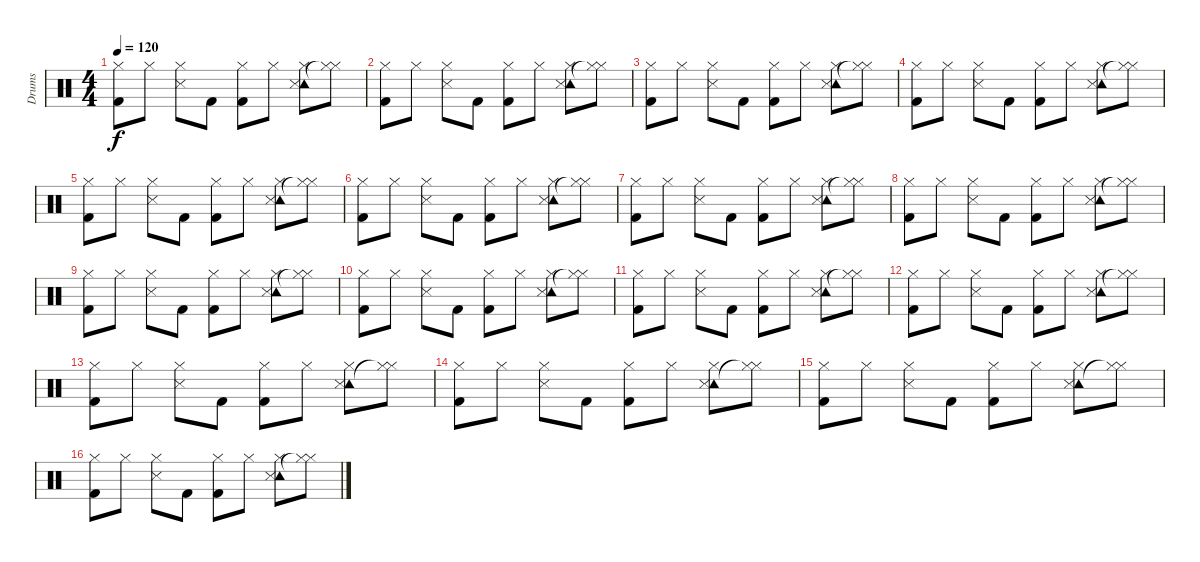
\track ("Drums" "Drums") {instrument percussion}
\staff {score}
\articulation defaults
\ts (4 4)
\tempo 120
\clef neutral
\ks c
("Hi-Hat (closed)" "Kick (hit) 2").8{dy f} "Hi-Hat (closed)".8 ("Hi-Hat (closed)" "Snare (side stick) 3").8 "Kick (hit) 2".8 ("Hi-Hat (closed)" "Kick (hit) 2").8 "Hi-Hat (closed)".8 ("Tambourine (hit)" "Hi-Hat (closed)" "Snare (side stick) 3").8 ("Hi-Hat (closed)"{t} "Hi-Hat (closed)").8 |
("Hi-Hat (closed)" "Kick (hit) 2").8 "Hi-Hat (closed)".8 ("Hi-Hat (closed)" "Snare (side stick) 3").8 "Kick (hit) 2".8 ("Hi-Hat (closed)" "Kick (hit) 2").8 "Hi-Hat (closed)".8 ("Tambourine (hit)" "Hi-Hat (closed)" "Snare (side stick) 3").8 ("Hi-Hat (closed)"{t} "Hi-Hat (closed)").8 |
("Hi-Hat (closed)" "Kick (hit) 2").8 "Hi-Hat (closed)".8 ("Hi-Hat (closed)" "Snare (side stick) 3").8 "Kick (hit) 2".8 ("Hi-Hat (closed)" "Kick (hit) 2").8 "Hi-Hat (closed)".8 ("Tambourine (hit)" "Hi-Hat (closed)" "Snare (side stick) 3").8 ("Hi-Hat (closed)"{t} "Hi-Hat (closed)").8 |
("Hi-Hat (closed)" "Kick (hit) 2").8 "Hi-Hat (closed)".8 ("Hi-Hat (closed)" "Snare (side stick) 3").8 "Kick (hit) 2".8 ("Hi-Hat (closed)" "Kick (hit) 2").8 "Hi-Hat (closed)".8 ("Tambourine (hit)" "Hi-Hat (closed)" "Snare (side stick) 3").8 ("Hi-Hat (closed)"{t} "Hi-Hat (closed)").8 |
("Hi-Hat (closed)" "Kick (hit) 2").8 "Hi-Hat (closed)".8 ("Hi-Hat (closed)" "Snare (side stick) 3").8 "Kick (hit) 2".8 ("Hi-Hat (closed)" "Kick (hit) 2").8 "Hi-Hat (closed)".8 ("Tambourine (hit)" "Hi-Hat (closed)" "Snare (side stick) 3").8 ("Hi-Hat (closed)"{t} "Hi-Hat (closed)").8 |
("Hi-Hat (closed)" "Kick (hit) 2").8 "Hi-Hat (closed)".8 ("Hi-Hat (closed)" "Snare (side stick) 3").8 "Kick (hit) 2".8 ("Hi-Hat (closed)" "Kick (hit) 2").8 "Hi-Hat (closed)".8 ("Tambourine (hit)" "Hi-Hat (closed)" "Snare (side stick) 3").8 ("Hi-Hat (closed)"{t} "Hi-Hat (closed)").8 |
("Hi-Hat (closed)" "Kick (hit) 2").8 "Hi-Hat (closed)".8 ("Hi-Hat (closed)" "Snare (side stick) 3").8 "Kick (hit) 2".8 ("Hi-Hat (closed)" "Kick (hit) 2").8 "Hi-Hat (closed)".8 ("Tambourine (hit)" "Hi-Hat (closed)" "Snare (side stick) 3").8 ("Hi-Hat (closed)"{t} "Hi-Hat (closed)").8 |
("Hi-Hat (closed)" "Kick (hit) 2").8 "Hi-Hat (closed)".8 ("Hi-Hat (closed)" "Snare (side stick) 3").8 "Kick (hit) 2".8 ("Hi-Hat (closed)" "Kick (hit) 2").8 "Hi-Hat (closed)".8 ("Tambourine (hit)" "Hi-Hat (closed)" "Snare (side stick) 3").8 ("Hi-Hat (closed)"{t} "Hi-Hat (closed)").8 |
("Hi-Hat (closed)" "Kick (hit) 2").8 "Hi-Hat (closed)".8 ("Hi-Hat (closed)" "Snare (side stick) 3").8 "Kick (hit) 2".8 ("Hi-Hat (closed)" "Kick (hit) 2").8 "Hi-Hat (closed)".8 ("Tambourine (hit)" "Hi-Hat (closed)" "Snare (side stick) 3").8 ("Hi-Hat (closed)"{t} "Hi-Hat (closed)").8 |
("Hi-Hat (closed)" "Kick (hit) 2").8 "Hi-Hat (closed)".8 ("Hi-Hat (closed)" "Snare (side stick) 3").8 "Kick (hit) 2".8 ("Hi-Hat (closed)" "Kick (hit) 2").8 "Hi-Hat (closed)".8 ("Tambourine (hit)" "Hi-Hat (closed)" "Snare (side stick) 3").8 ("Hi-Hat (closed)"{t} "Hi-Hat (closed)").8 |
("Hi-Hat (closed)" "Kick (hit) 2").8 "Hi-Hat (closed)".8 ("Hi-Hat (closed)" "Snare (side stick) 3").8 "Kick (hit) 2".8 ("Hi-Hat (closed)" "Kick (hit) 2").8 "Hi-Hat (closed)".8 ("Tambourine (hit)" "Hi-Hat (closed)" "Snare (side stick) 3").8 ("Hi-Hat (closed)"{t} "Hi-Hat (closed)").8 |
("Hi-Hat (closed)" "Kick (hit) 2").8 "Hi-Hat (closed)".8 ("Hi-Hat (closed)" "Snare (side stick) 3").8 "Kick (hit) 2".8 ("Hi-Hat (closed)" "Kick (hit) 2").8 "Hi-Hat (closed)".8 ("Tambourine (hit)" "Hi-Hat (closed)" "Snare (side stick) 3").8 ("Hi-Hat (closed)"{t} "Hi-Hat (closed)").8 |
("Hi-Hat (closed)" "Kick (hit) 2").8 "Hi-Hat (closed)".8 ("Hi-Hat (closed)" "Snare (side stick) 3").8 "Kick (hit) 2".8 ("Hi-Hat (closed)" "Kick (hit) 2").8 "Hi-Hat (closed)".8 ("Tambourine (hit)" "Hi-Hat (closed)" "Snare (side stick) 3").8 ("Hi-Hat (closed)"{t} "Hi-Hat (closed)").8 |
("Hi-Hat (closed)" "Kick (hit) 2").8 "Hi-Hat (closed)".8 ("Hi-Hat (closed)" "Snare (side stick) 3").8 "Kick (hit) 2".8 ("Hi-Hat (closed)" "Kick (hit) 2").8 "Hi-Hat (closed)".8 ("Tambourine (hit)" "Hi-Hat (closed)" "Snare (side stick) 3").8 ("Hi-Hat (closed)"{t} "Hi-Hat (closed)").8 |
("Hi-Hat (closed)" "Kick (hit) 2").8 "Hi-Hat (closed)".8 ("Hi-Hat (closed)" "Snare (side stick) 3").8 "Kick (hit) 2".8 ("Hi-Hat (closed)" "Kick (hit) 2").8 "Hi-Hat (closed)".8 ("Tambourine (hit)" "Hi-Hat (closed)" "Snare (side stick) 3").8 ("Hi-Hat (closed)"{t} "Hi-Hat (closed)").8 |
("Hi-Hat (closed)" "Kick (hit) 2").8 "Hi-Hat (closed)".8 ("Hi-Hat (closed)" "Snare (side stick) 3").8 "Kick (hit) 2".8 ("Hi-Hat (closed)" "Kick (hit) 2").8 "Hi-Hat (closed)".8 ("Tambourine (hit)" "Hi-Hat (closed)" "Snare (side stick) 3").8 ("Hi-Hat (closed)"{t} "Hi-Hat (closed)").8
